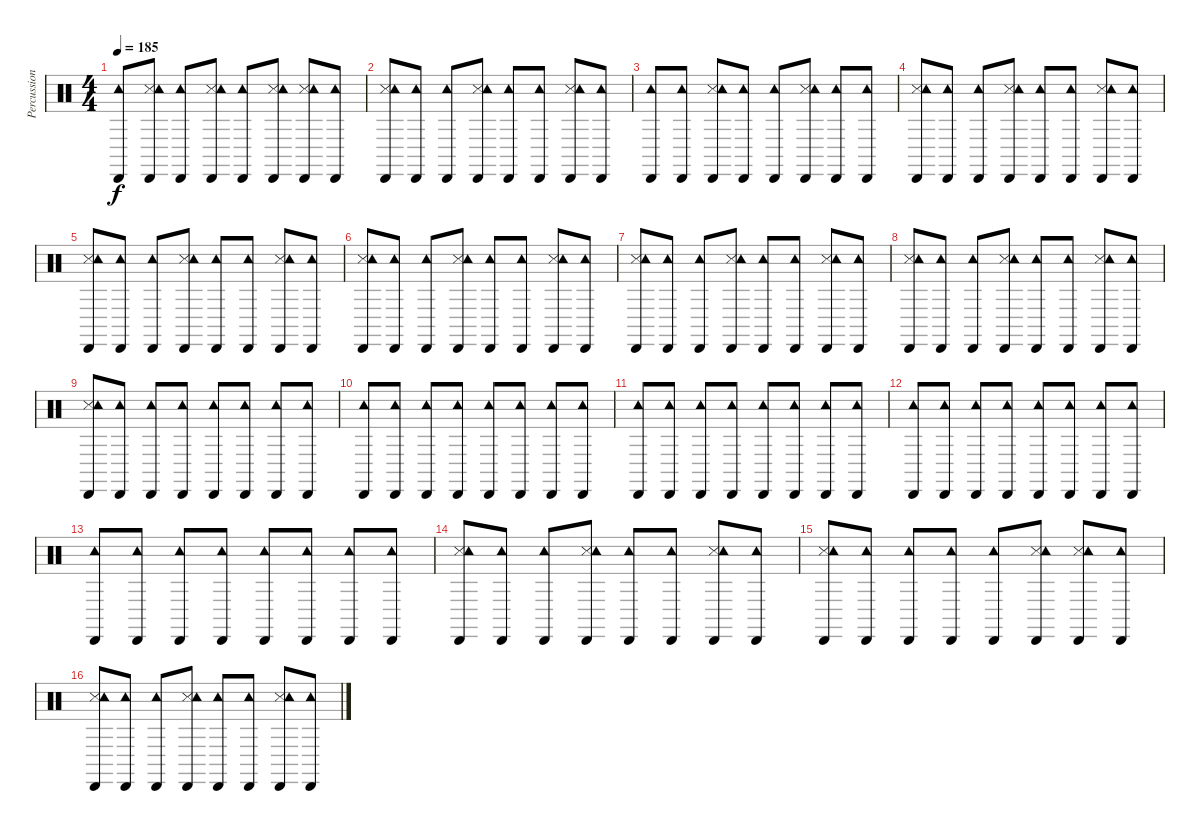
\track ("Percussion" "Percussion") {instrument percussion}
\staff {score}
\articulation defaults
\ts (4 4)
\tempo 185
\clef neutral
\ks c
("Cabasa (hit)" "Tambourine (hit)").8{dy f} ("Snare (side stick) 3" "Cabasa (hit)" "Tambourine (hit)").8 ("Cabasa (hit)" "Tambourine (hit)").8 ("Snare (side stick) 3" "Cabasa (hit)" "Tambourine (hit)").8 ("Cabasa (hit)" "Tambourine (hit)").8 ("Snare (side stick) 3" "Cabasa (hit)" "Tambourine (hit)").8 ("Snare (side stick) 3" "Cabasa (hit)" "Tambourine (hit)").8 ("Cabasa (hit)" "Tambourine (hit)").8 |
("Cabasa (hit)" "Snare (side stick) 3" "Tambourine (hit)").8 ("Cabasa (hit)" "Tambourine (hit)").8 ("Cabasa (hit)" "Tambourine (hit)").8 ("Cabasa (hit)" "Snare (side stick) 3" "Tambourine (hit)").8 ("Cabasa (hit)" "Tambourine (hit)").8 ("Cabasa (hit)" "Tambourine (hit)").8 ("Cabasa (hit)" "Snare (side stick) 3" "Tambourine (hit)").8 ("Cabasa (hit)" "Tambourine (hit)").8 |
("Cabasa (hit)" "Tambourine (hit)").8 ("Cabasa (hit)" "Tambourine (hit)").8 ("Cabasa (hit)" "Snare (side stick) 3" "Tambourine (hit)").8 ("Cabasa (hit)" "Tambourine (hit)").8 ("Cabasa (hit)" "Tambourine (hit)").8 ("Cabasa (hit)" "Snare (side stick) 3" "Tambourine (hit)").8 ("Cabasa (hit)" "Tambourine (hit)").8 ("Cabasa (hit)" "Tambourine (hit)").8 |
("Cabasa (hit)" "Snare (side stick) 3" "Tambourine (hit)").8 ("Cabasa (hit)" "Tambourine (hit)").8 ("Cabasa (hit)" "Tambourine (hit)").8 ("Cabasa (hit)" "Snare (side stick) 3" "Tambourine (hit)").8 ("Cabasa (hit)" "Tambourine (hit)").8 ("Cabasa (hit)" "Tambourine (hit)").8 ("Cabasa (hit)" "Snare (side stick) 3" "Tambourine (hit)").8 ("Cabasa (hit)" "Tambourine (hit)").8 |
("Cabasa (hit)" "Snare (side stick) 3" "Tambourine (hit)").8 ("Cabasa (hit)" "Tambourine (hit)").8 ("Cabasa (hit)" "Tambourine (hit)").8 ("Cabasa (hit)" "Snare (side stick) 3" "Tambourine (hit)").8 ("Cabasa (hit)" "Tambourine (hit)").8 ("Cabasa (hit)" "Tambourine (hit)").8 ("Cabasa (hit)" "Snare (side stick) 3" "Tambourine (hit)").8 ("Cabasa (hit)" "Tambourine (hit)").8 |
("Cabasa (hit)" "Snare (side stick) 3" "Tambourine (hit)").8 ("Cabasa (hit)" "Tambourine (hit)").8 ("Cabasa (hit)" "Tambourine (hit)").8 ("Cabasa (hit)" "Snare (side stick) 3" "Tambourine (hit)").8 ("Cabasa (hit)" "Tambourine (hit)").8 ("Cabasa (hit)" "Tambourine (hit)").8 ("Cabasa (hit)" "Snare (side stick) 3" "Tambourine (hit)").8 ("Cabasa (hit)" "Tambourine (hit)").8 |
("Cabasa (hit)" "Snare (side stick) 3" "Tambourine (hit)").8 ("Cabasa (hit)" "Tambourine (hit)").8 ("Cabasa (hit)" "Tambourine (hit)").8 ("Cabasa (hit)" "Snare (side stick) 3" "Tambourine (hit)").8 ("Cabasa (hit)" "Tambourine (hit)").8 ("Cabasa (hit)" "Tambourine (hit)").8 ("Cabasa (hit)" "Snare (side stick) 3" "Tambourine (hit)").8 ("Cabasa (hit)" "Tambourine (hit)").8 |
("Cabasa (hit)" "Snare (side stick) 3" "Tambourine (hit)").8 ("Cabasa (hit)" "Tambourine (hit)").8 ("Cabasa (hit)" "Tambourine (hit)").8 ("Cabasa (hit)" "Snare (side stick) 3" "Tambourine (hit)").8 ("Cabasa (hit)" "Tambourine (hit)").8 ("Cabasa (hit)" "Tambourine (hit)").8 ("Cabasa (hit)" "Snare (side stick) 3" "Tambourine (hit)").8 ("Cabasa (hit)" "Tambourine (hit)").8 |
("Cabasa (hit)" "Snare (side stick) 3" "Tambourine (hit)").8 ("Cabasa (hit)" "Tambourine (hit)").8 ("Cabasa (hit)" "Tambourine (hit)").8 ("Cabasa (hit)" "Tambourine (hit)").8 ("Cabasa (hit)" "Tambourine (hit)").8 ("Cabasa (hit)" "Tambourine (hit)").8 ("Cabasa (hit)" "Tambourine (hit)").8 ("Cabasa (hit)" "Tambourine (hit)").8 |
("Cabasa (hit)" "Tambourine (hit)").8 ("Cabasa (hit)" "Tambourine (hit)").8 ("Cabasa (hit)" "Tambourine (hit)").8 ("Cabasa (hit)" "Tambourine (hit)").8 ("Cabasa (hit)" "Tambourine (hit)").8 ("Cabasa (hit)" "Tambourine (hit)").8 ("Cabasa (hit)" "Tambourine (hit)").8 ("Cabasa (hit)" "Tambourine (hit)").8 |
("Cabasa (hit)" "Tambourine (hit)").8 ("Cabasa (hit)" "Tambourine (hit)").8 ("Cabasa (hit)" "Tambourine (hit)").8 ("Cabasa (hit)" "Tambourine (hit)").8 ("Cabasa (hit)" "Tambourine (hit)").8 ("Cabasa (hit)" "Tambourine (hit)").8 ("Cabasa (hit)" "Tambourine (hit)").8 ("Cabasa (hit)" "Tambourine (hit)").8 |
("Cabasa (hit)" "Tambourine (hit)").8 ("Cabasa (hit)" "Tambourine (hit)").8 ("Cabasa (hit)" "Tambourine (hit)").8 ("Cabasa (hit)" "Tambourine (hit)").8 ("Cabasa (hit)" "Tambourine (hit)").8 ("Cabasa (hit)" "Tambourine (hit)").8 ("Cabasa (hit)" "Tambourine (hit)").8 ("Cabasa (hit)" "Tambourine (hit)").8 |
("Cabasa (hit)" "Tambourine (hit)").8 ("Cabasa (hit)" "Tambourine (hit)").8 ("Cabasa (hit)" "Tambourine (hit)").8 ("Cabasa (hit)" "Tambourine (hit)").8 ("Cabasa (hit)" "Tambourine (hit)").8 ("Cabasa (hit)" "Tambourine (hit)").8 ("Cabasa (hit)" "Tambourine (hit)").8 ("Cabasa (hit)" "Tambourine (hit)").8 |
("Cabasa (hit)" "Snare (side stick) 3" "Tambourine (hit)").8 ("Cabasa (hit)" "Tambourine (hit)").8 ("Cabasa (hit)" "Tambourine (hit)").8 ("Cabasa (hit)" "Snare (side stick) 3" "Tambourine (hit)").8 ("Cabasa (hit)" "Tambourine (hit)").8 ("Cabasa (hit)" "Tambourine (hit)").8 ("Cabasa (hit)" "Snare (side stick) 3" "Tambourine (hit)").8 ("Cabasa (hit)" "Tambourine (hit)").8 |
("Cabasa (hit)" "Snare (side stick) 3" "Tambourine (hit)").8 ("Cabasa (hit)" "Tambourine (hit)").8 ("Cabasa (hit)" "Tambourine (hit)").8 ("Cabasa (hit)" "Tambourine (hit)").8 ("Cabasa (hit)" "Tambourine (hit)").8 ("Cabasa (hit)" "Snare (side stick) 3" "Tambourine (hit)").8 ("Cabasa (hit)" "Snare (side stick) 3" "Tambourine (hit)").8 ("Cabasa (hit)" "Tambourine (hit)").8 |
("Cabasa (hit)" "Snare (side stick) 3" "Tambourine (hit)").8 ("Cabasa (hit)" "Tambourine (hit)").8 ("Cabasa (hit)" "Tambourine (hit)").8 ("Cabasa (hit)" "Snare (side stick) 3" "Tambourine (hit)").8 ("Cabasa (hit)" "Tambourine (hit)").8 ("Cabasa (hit)" "Tambourine (hit)").8 ("Cabasa (hit)" "Snare (side stick) 3" "Tambourine (hit)").8 ("Cabasa (hit)" "Tambourine (hit)").8
